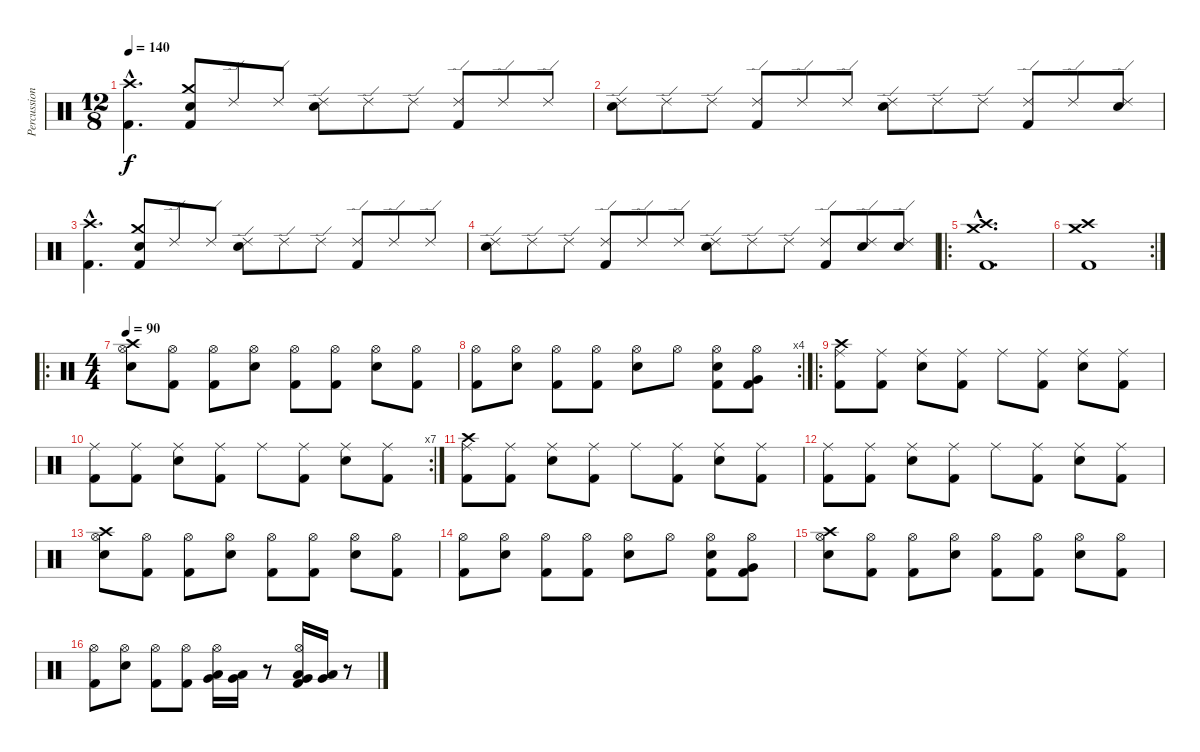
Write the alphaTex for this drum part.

\track ("Percussion" "Percussion") {instrument percussion}
\staff {score}
\articulation defaults
\ts (12 8)
\tempo 140
\clef neutral
\ks c
("Crash high (hit)"{hac} "Kick (hit) 2"{hac}).4{d dy f} ("Crash medium (hit)" "Electric Snare (hit)" "Kick (hit) 2").8 "Ride (edge) 2".8 "Ride (edge) 2".8 ("Ride (edge) 2" "Electric Snare (hit)").8 "Ride (edge) 2".8 "Ride (edge) 2".8 ("Ride (edge) 2" "Kick (hit) 2").8 "Ride (edge) 2".8 "Ride (edge) 2".8 |
("Ride (edge) 2" "Electric Snare (hit)").8 "Ride (edge) 2".8 "Ride (edge) 2".8 ("Ride (edge) 2" "Kick (hit) 2").8 "Ride (edge) 2".8 "Ride (edge) 2".8 ("Ride (edge) 2" "Electric Snare (hit)").8 "Ride (edge) 2".8 "Ride (edge) 2".8 ("Ride (edge) 2" "Kick (hit) 2").8 "Ride (edge) 2".8 ("Ride (edge) 2" "Electric Snare (hit)").8 |
("Crash high (hit)"{hac} "Kick (hit) 2"{hac}).4{d} ("Crash medium (hit)" "Electric Snare (hit)" "Kick (hit) 2").8 "Ride (edge) 2".8 "Ride (edge) 2".8 ("Ride (edge) 2" "Electric Snare (hit)").8 "Ride (edge) 2".8 "Ride (edge) 2".8 ("Ride (edge) 2" "Kick (hit) 2").8 "Ride (edge) 2".8 "Ride (edge) 2".8 |
("Ride (edge) 2" "Electric Snare (hit)").8 "Ride (edge) 2".8 "Ride (edge) 2".8 ("Ride (edge) 2" "Kick (hit) 2").8 "Ride (edge) 2".8 "Ride (edge) 2".8 ("Ride (edge) 2" "Electric Snare (hit)").8 "Ride (edge) 2".8 "Ride (edge) 2".8 ("Ride (edge) 2" "Kick (hit) 2").8 ("Ride (edge) 2" "Electric Snare (hit)").8 ("Ride (edge) 2" "Electric Snare (hit)").8 |
\ro
("Crash high (hit)"{hac} "Crash medium (hit)"{hac} "Kick (hit) 2"{hac}).1{d} |
\rc 2
("Crash high (hit)" "Crash medium (hit)" "Kick (hit) 2").1 |
\ro
\ts (4 4)
\tempo 90
("Crash high (hit)" "Hi-Hat (open)" "Electric Snare (hit)").8 ("Hi-Hat (open)" "Kick (hit) 2").8 ("Hi-Hat (open)" "Kick (hit) 2").8 ("Hi-Hat (open)" "Electric Snare (hit)").8 ("Hi-Hat (open)" "Kick (hit) 2").8 ("Hi-Hat (open)" "Kick (hit) 2").8 ("Hi-Hat (open)" "Electric Snare (hit)").8 ("Hi-Hat (open)" "Kick (hit) 2").8 |
\rc 4
("Hi-Hat (open)" "Kick (hit) 2").8 ("Hi-Hat (open)" "Electric Snare (hit)").8 ("Hi-Hat (open)" "Kick (hit) 2").8 ("Hi-Hat (open)" "Kick (hit) 2").8 ("Hi-Hat (open)" "Electric Snare (hit)").8 "Hi-Hat (open)".8 ("Hi-Hat (open)" "Electric Snare (hit)" "Kick (hit) 2").8 ("Hi-Hat (open)" "Very Low Tom (hit)" "Kick (hit) 2").8 |
\ro
("Crash high (hit)" "Ride (middle)" "Kick (hit) 2").8 ("Ride (middle)" "Kick (hit) 2").8 ("Ride (middle)" "Electric Snare (hit)").8 ("Ride (middle)" "Kick (hit) 2").8 "Ride (middle)".8 ("Ride (middle)" "Kick (hit) 2").8 ("Ride (middle)" "Electric Snare (hit)").8 ("Ride (middle)" "Kick (hit) 2").8 |
\rc 7
("Ride (middle)" "Kick (hit) 2").8 ("Ride (middle)" "Kick (hit) 2").8 ("Ride (middle)" "Electric Snare (hit)").8 ("Ride (middle)" "Kick (hit) 2").8 "Ride (middle)".8 ("Ride (middle)" "Kick (hit) 2").8 ("Ride (middle)" "Electric Snare (hit)").8 ("Ride (middle)" "Kick (hit) 2").8 |
("Crash high (hit)" "Ride (middle)" "Kick (hit) 2").8{volume 12} ("Ride (middle)" "Kick (hit) 2").8 ("Ride (middle)" "Electric Snare (hit)").8 ("Ride (middle)" "Kick (hit) 2").8 "Ride (middle)".8 ("Ride (middle)" "Kick (hit) 2").8 ("Ride (middle)" "Electric Snare (hit)").8 ("Ride (middle)" "Kick (hit) 2").8 |
("Ride (middle)" "Kick (hit) 2").8 ("Ride (middle)" "Kick (hit) 2").8 ("Ride (middle)" "Electric Snare (hit)").8 ("Ride (middle)" "Kick (hit) 2").8 "Ride (middle)".8 ("Ride (middle)" "Kick (hit) 2").8 ("Ride (middle)" "Electric Snare (hit)").8 ("Ride (middle)" "Kick (hit) 2").8 |
("Crash high (hit)" "Hi-Hat (open)" "Electric Snare (hit)").8{volume 9} ("Hi-Hat (open)" "Kick (hit) 2").8 ("Hi-Hat (open)" "Kick (hit) 2").8 ("Hi-Hat (open)" "Electric Snare (hit)").8 ("Hi-Hat (open)" "Kick (hit) 2").8 ("Hi-Hat (open)" "Kick (hit) 2").8 ("Hi-Hat (open)" "Electric Snare (hit)").8 ("Hi-Hat (open)" "Kick (hit) 2").8 |
("Hi-Hat (open)" "Kick (hit) 2").8 ("Hi-Hat (open)" "Electric Snare (hit)").8 ("Hi-Hat (open)" "Kick (hit) 2").8 ("Hi-Hat (open)" "Kick (hit) 2").8 ("Hi-Hat (open)" "Electric Snare (hit)").8 "Hi-Hat (open)".8 ("Hi-Hat (open)" "Electric Snare (hit)" "Kick (hit) 2").8 ("Hi-Hat (open)" "Very Low Tom (hit)" "Kick (hit) 2").8 |
("Crash high (hit)" "Hi-Hat (open)" "Electric Snare (hit)").8{volume 4} ("Hi-Hat (open)" "Kick (hit) 2").8 ("Hi-Hat (open)" "Kick (hit) 2").8 ("Hi-Hat (open)" "Electric Snare (hit)").8 ("Hi-Hat (open)" "Kick (hit) 2").8 ("Hi-Hat (open)" "Kick (hit) 2").8 ("Hi-Hat (open)" "Electric Snare (hit)").8 ("Hi-Hat (open)" "Kick (hit) 2").8 |
("Hi-Hat (open)" "Kick (hit) 2").8 ("Hi-Hat (open)" "Electric Snare (hit)").8 ("Hi-Hat (open)" "Kick (hit) 2").8 ("Hi-Hat (open)" "Kick (hit) 2").8 ("Hi-Hat (open)" "Very Low Tom (hit)" "Low Tom (hit)").16 ("Very Low Tom (hit)" "Low Tom (hit)").16 r.8 ("Hi-Hat (open)" "Very Low Tom (hit)" "Low Tom (hit)" "Kick (hit) 2").16 ("Very Low Tom (hit)" "Low Tom (hit)").16 r.8
